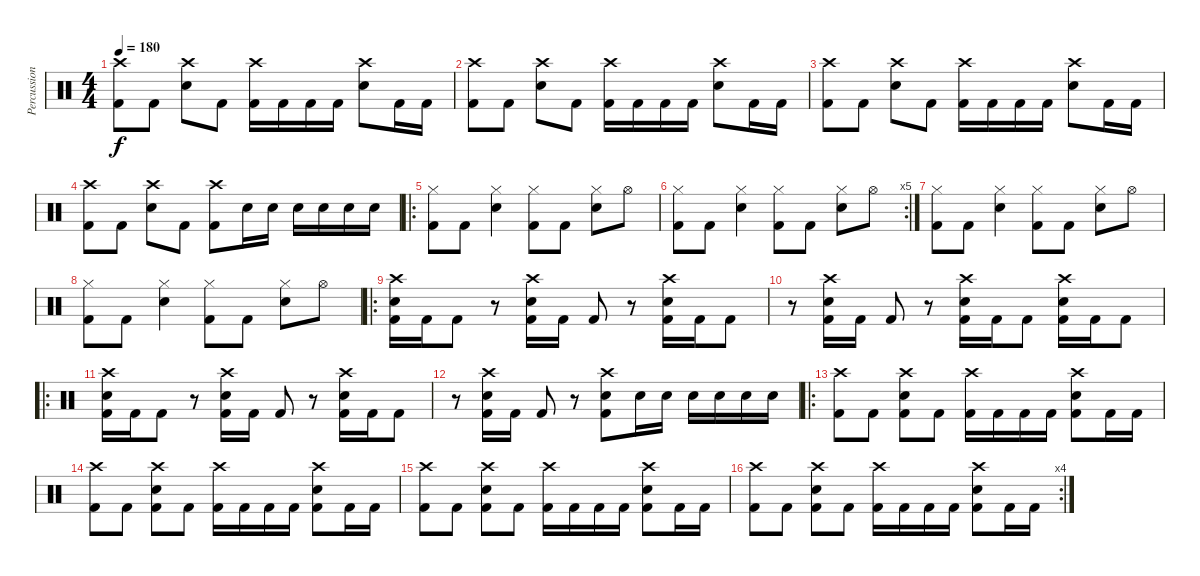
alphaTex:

\track ("Percussion" "Percussion") {instrument percussion}
\staff {score}
\articulation defaults
\ts (4 4)
\tempo 180
\clef neutral
\ks c
("Crash high (hit)" "Kick (hit) 2").8{dy f} "Kick (hit) 2".8 ("Crash high (hit)" "Electric Snare (hit)").8 "Kick (hit) 2".8 ("Crash high (hit)" "Kick (hit) 2").16 "Kick (hit) 2".16 "Kick (hit) 2".16 "Kick (hit) 2".16 ("Crash high (hit)" "Electric Snare (hit)").8 "Kick (hit) 2".16 "Kick (hit) 2".16 |
("Crash high (hit)" "Kick (hit) 2").8 "Kick (hit) 2".8 ("Crash high (hit)" "Electric Snare (hit)").8 "Kick (hit) 2".8 ("Crash high (hit)" "Kick (hit) 2").16 "Kick (hit) 2".16 "Kick (hit) 2".16 "Kick (hit) 2".16 ("Crash high (hit)" "Electric Snare (hit)").8 "Kick (hit) 2".16 "Kick (hit) 2".16 |
("Crash high (hit)" "Kick (hit) 2").8 "Kick (hit) 2".8 ("Crash high (hit)" "Electric Snare (hit)").8 "Kick (hit) 2".8 ("Crash high (hit)" "Kick (hit) 2").16 "Kick (hit) 2".16 "Kick (hit) 2".16 "Kick (hit) 2".16 ("Crash high (hit)" "Electric Snare (hit)").8 "Kick (hit) 2".16 "Kick (hit) 2".16 |
("Crash high (hit)" "Kick (hit) 2").8 "Kick (hit) 2".8 ("Crash high (hit)" "Electric Snare (hit)").8 "Kick (hit) 2".8 ("Crash high (hit)" "Kick (hit) 2").8 "Electric Snare (hit)".16 "Electric Snare (hit)".16 "Electric Snare (hit)".16 "Electric Snare (hit)".16 "Electric Snare (hit)".16 "Electric Snare (hit)".16 |
\ro
("Hi-Hat (closed)" "Kick (hit) 2").8 "Kick (hit) 2".8 ("Hi-Hat (closed)" "Electric Snare (hit)").4 ("Hi-Hat (closed)" "Kick (hit) 2").8 "Kick (hit) 2".8 ("Hi-Hat (closed)" "Electric Snare (hit)").8 "Hi-Hat (open)".8 |
\rc 5
("Hi-Hat (closed)" "Kick (hit) 2").8 "Kick (hit) 2".8 ("Hi-Hat (closed)" "Electric Snare (hit)").4 ("Hi-Hat (closed)" "Kick (hit) 2").8 "Kick (hit) 2".8 ("Hi-Hat (closed)" "Electric Snare (hit)").8 "Hi-Hat (open)".8 |
("Hi-Hat (closed)" "Kick (hit) 2").8 "Kick (hit) 2".8 ("Hi-Hat (closed)" "Electric Snare (hit)").4 ("Hi-Hat (closed)" "Kick (hit) 2").8 "Kick (hit) 2".8 ("Hi-Hat (closed)" "Electric Snare (hit)").8 "Hi-Hat (open)".8 |
("Hi-Hat (closed)" "Kick (hit) 2").8 "Kick (hit) 2".8 ("Hi-Hat (closed)" "Electric Snare (hit)").4 ("Hi-Hat (closed)" "Kick (hit) 2").8 "Kick (hit) 2".8 ("Hi-Hat (closed)" "Electric Snare (hit)").8 "Hi-Hat (open)".8 |
\ro
("Crash high (hit)" "Electric Snare (hit)" "Kick (hit) 2").16 "Kick (hit) 2".16 "Kick (hit) 2".8 r.8 ("Crash high (hit)" "Electric Snare (hit)" "Kick (hit) 2").16 "Kick (hit) 2".16 "Kick (hit) 2".8 r.8 ("Crash high (hit)" "Electric Snare (hit)" "Kick (hit) 2").16 "Kick (hit) 2".16 "Kick (hit) 2".8 |
r.8 ("Crash high (hit)" "Electric Snare (hit)" "Kick (hit) 2").16 "Kick (hit) 2".16 "Kick (hit) 2".8 r.8 ("Crash high (hit)" "Electric Snare (hit)" "Kick (hit) 2").16 "Kick (hit) 2".16 "Kick (hit) 2".8 ("Crash high (hit)" "Electric Snare (hit)" "Kick (hit) 2").16 "Kick (hit) 2".16 "Kick (hit) 2".8 |
\ro
("Crash high (hit)" "Electric Snare (hit)" "Kick (hit) 2").16 "Kick (hit) 2".16 "Kick (hit) 2".8 r.8 ("Crash high (hit)" "Electric Snare (hit)" "Kick (hit) 2").16 "Kick (hit) 2".16 "Kick (hit) 2".8 r.8 ("Crash high (hit)" "Electric Snare (hit)" "Kick (hit) 2").16 "Kick (hit) 2".16 "Kick (hit) 2".8 |
r.8 ("Crash high (hit)" "Electric Snare (hit)" "Kick (hit) 2").16 "Kick (hit) 2".16 "Kick (hit) 2".8 r.8 ("Crash high (hit)" "Electric Snare (hit)" "Kick (hit) 2").8 "Electric Snare (hit)".16 "Electric Snare (hit)".16 "Electric Snare (hit)".16 "Electric Snare (hit)".16 "Electric Snare (hit)".16 "Electric Snare (hit)".16 |
\ro
("Crash high (hit)" "Kick (hit) 2").8 "Kick (hit) 2".8 ("Crash high (hit)" "Electric Snare (hit)" "Kick (hit) 2").8 "Kick (hit) 2".8 ("Crash high (hit)" "Kick (hit) 2").16 "Kick (hit) 2".16 "Kick (hit) 2".16 "Kick (hit) 2".16 ("Crash high (hit)" "Electric Snare (hit)" "Kick (hit) 2").8 "Kick (hit) 2".16 "Kick (hit) 2".16 |
("Crash high (hit)" "Kick (hit) 2").8 "Kick (hit) 2".8 ("Crash high (hit)" "Electric Snare (hit)" "Kick (hit) 2").8 "Kick (hit) 2".8 ("Crash high (hit)" "Kick (hit) 2").16 "Kick (hit) 2".16 "Kick (hit) 2".16 "Kick (hit) 2".16 ("Crash high (hit)" "Electric Snare (hit)" "Kick (hit) 2").8 "Kick (hit) 2".16 "Kick (hit) 2".16 |
("Crash high (hit)" "Kick (hit) 2").8 "Kick (hit) 2".8 ("Crash high (hit)" "Electric Snare (hit)" "Kick (hit) 2").8 "Kick (hit) 2".8 ("Crash high (hit)" "Kick (hit) 2").16 "Kick (hit) 2".16 "Kick (hit) 2".16 "Kick (hit) 2".16 ("Crash high (hit)" "Electric Snare (hit)" "Kick (hit) 2").8 "Kick (hit) 2".16 "Kick (hit) 2".16 |
\rc 4
("Crash high (hit)" "Kick (hit) 2").8 "Kick (hit) 2".8 ("Crash high (hit)" "Electric Snare (hit)" "Kick (hit) 2").8 "Kick (hit) 2".8 ("Crash high (hit)" "Kick (hit) 2").16 "Kick (hit) 2".16 "Kick (hit) 2".16 "Kick (hit) 2".16 ("Crash high (hit)" "Electric Snare (hit)" "Kick (hit) 2").8 "Kick (hit) 2".16 "Kick (hit) 2".16
